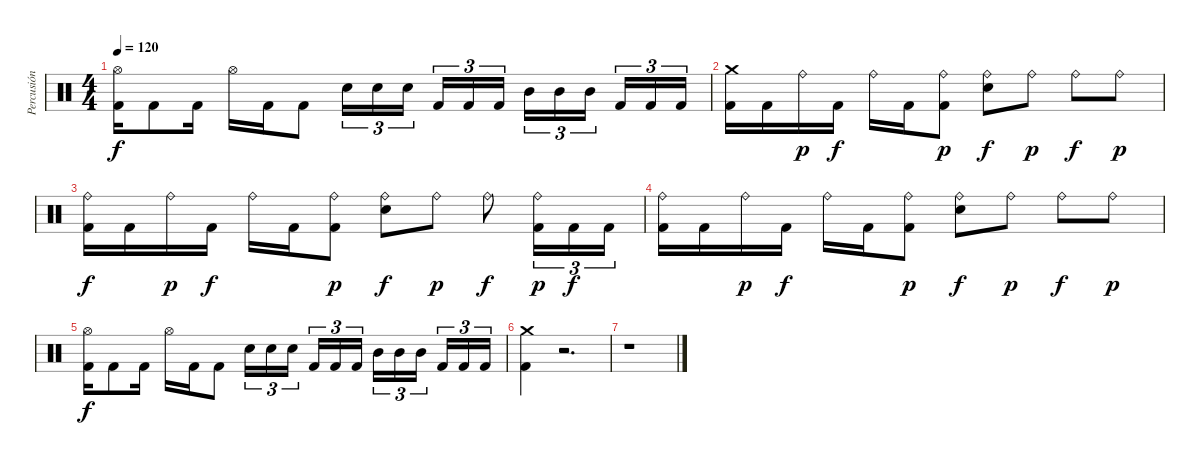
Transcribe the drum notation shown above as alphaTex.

\track ("Percusión" "Percusión") {instrument percussion}
\staff {score}
\articulation defaults
\ts (4 4)
\tempo 120
\clef neutral
\ks c
("Kick (hit) 2" "Hi-Hat (open)").16{dy f} "Kick (hit) 2".8 "Kick (hit) 2".16 "Hi-Hat (open)".16 "Kick (hit) 2".16 "Kick (hit) 2".8 "Electric Snare (hit)".16{tu (3 2)} "Electric Snare (hit)".16{tu (3 2)} "Electric Snare (hit)".16{tu (3 2) beam splitsecondary} "Kick (hit) 2".16{tu (3 2)} "Kick (hit) 2".16{tu (3 2)} "Kick (hit) 2".16{tu (3 2)} "Mid Tom (hit)".16{tu (3 2)} "Mid Tom (hit)".16{tu (3 2)} "Mid Tom (hit)".16{tu (3 2) beam splitsecondary} "Kick (hit) 2".16{tu (3 2)} "Kick (hit) 2".16{tu (3 2)} "Kick (hit) 2".16{tu (3 2)} |
("Kick (hit) 2" "Crash medium (hit)").16 "Kick (hit) 2".16 "Ride (bell)".16{dy p} "Kick (hit) 2".16{dy f} "Ride (bell)".16 "Kick (hit) 2".16 ("Kick (hit) 2" "Ride (bell)").8{dy p} ("Electric Snare (hit)" "Ride (bell)").8{dy f} "Ride (bell)".8{dy p} "Ride (bell)".8{dy f} "Ride (bell)".8{dy p} |
("Kick (hit) 2" "Ride (bell)").16{dy f} "Kick (hit) 2".16 "Ride (bell)".16{dy p} "Kick (hit) 2".16{dy f} "Ride (bell)".16 "Kick (hit) 2".16 ("Kick (hit) 2" "Ride (bell)").8{dy p} ("Electric Snare (hit)" "Ride (bell)").8{dy f} "Ride (bell)".8{dy p} "Ride (bell)".8{dy f} ("Kick (hit) 2" "Ride (bell)").16{tu (3 2) dy p} "Kick (hit) 2".16{tu (3 2) dy f} "Kick (hit) 2".16{tu (3 2)} |
("Kick (hit) 2" "Ride (bell)").16 "Kick (hit) 2".16 "Ride (bell)".16{dy p} "Kick (hit) 2".16{dy f} "Ride (bell)".16 "Kick (hit) 2".16 ("Kick (hit) 2" "Ride (bell)").8{dy p} ("Electric Snare (hit)" "Ride (bell)").8{dy f} "Ride (bell)".8{dy p} "Ride (bell)".8{dy f} "Ride (bell)".8{dy p} |
("Kick (hit) 2" "Hi-Hat (open)").16{dy f} "Kick (hit) 2".8 "Kick (hit) 2".16 "Hi-Hat (open)".16 "Kick (hit) 2".16 "Kick (hit) 2".8 "Electric Snare (hit)".16{tu (3 2)} "Electric Snare (hit)".16{tu (3 2)} "Electric Snare (hit)".16{tu (3 2) beam splitsecondary} "Kick (hit) 2".16{tu (3 2)} "Kick (hit) 2".16{tu (3 2)} "Kick (hit) 2".16{tu (3 2)} "Mid Tom (hit)".16{tu (3 2)} "Mid Tom (hit)".16{tu (3 2)} "Mid Tom (hit)".16{tu (3 2) beam splitsecondary} "Kick (hit) 2".16{tu (3 2)} "Kick (hit) 2".16{tu (3 2)} "Kick (hit) 2".16{tu (3 2)} |
("Kick (hit) 2" "Crash medium (hit)").4 r.2{d} |
r.1
